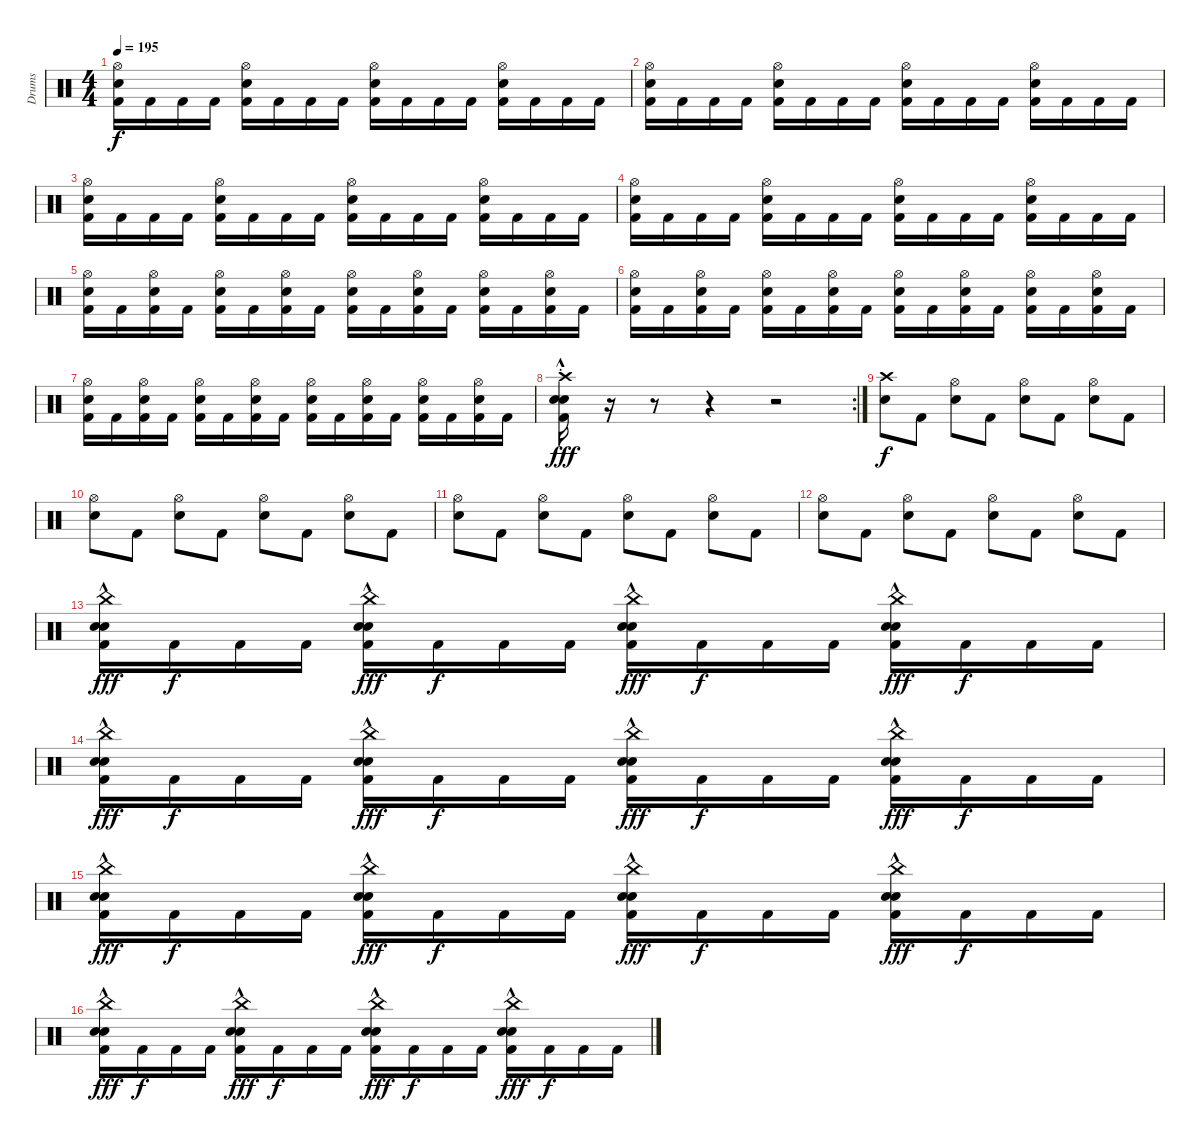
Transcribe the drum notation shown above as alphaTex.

\track ("Drums" "Drums") {instrument percussion}
\staff {score}
\articulation defaults
\ts (4 4)
\tempo 195
\clef neutral
\ks c
("Hi-Hat (open)" "Electric Snare (hit)" "Kick (hit) 2").16{dy f} "Kick (hit) 2".16 "Kick (hit) 2".16 "Kick (hit) 2".16 ("Hi-Hat (open)" "Electric Snare (hit)" "Kick (hit) 2").16 "Kick (hit) 2".16 "Kick (hit) 2".16 "Kick (hit) 2".16 ("Hi-Hat (open)" "Electric Snare (hit)" "Kick (hit) 2").16 "Kick (hit) 2".16 "Kick (hit) 2".16 "Kick (hit) 2".16 ("Hi-Hat (open)" "Electric Snare (hit)" "Kick (hit) 2").16 "Kick (hit) 2".16 "Kick (hit) 2".16 "Kick (hit) 2".16 |
("Hi-Hat (open)" "Electric Snare (hit)" "Kick (hit) 2").16 "Kick (hit) 2".16 "Kick (hit) 2".16 "Kick (hit) 2".16 ("Hi-Hat (open)" "Electric Snare (hit)" "Kick (hit) 2").16 "Kick (hit) 2".16 "Kick (hit) 2".16 "Kick (hit) 2".16 ("Hi-Hat (open)" "Electric Snare (hit)" "Kick (hit) 2").16 "Kick (hit) 2".16 "Kick (hit) 2".16 "Kick (hit) 2".16 ("Hi-Hat (open)" "Electric Snare (hit)" "Kick (hit) 2").16 "Kick (hit) 2".16 "Kick (hit) 2".16 "Kick (hit) 2".16 |
("Hi-Hat (open)" "Electric Snare (hit)" "Kick (hit) 2").16 "Kick (hit) 2".16 "Kick (hit) 2".16 "Kick (hit) 2".16 ("Hi-Hat (open)" "Electric Snare (hit)" "Kick (hit) 2").16 "Kick (hit) 2".16 "Kick (hit) 2".16 "Kick (hit) 2".16 ("Hi-Hat (open)" "Electric Snare (hit)" "Kick (hit) 2").16 "Kick (hit) 2".16 "Kick (hit) 2".16 "Kick (hit) 2".16 ("Hi-Hat (open)" "Electric Snare (hit)" "Kick (hit) 2").16 "Kick (hit) 2".16 "Kick (hit) 2".16 "Kick (hit) 2".16 |
("Hi-Hat (open)" "Electric Snare (hit)" "Kick (hit) 2").16 "Kick (hit) 2".16 "Kick (hit) 2".16 "Kick (hit) 2".16 ("Hi-Hat (open)" "Electric Snare (hit)" "Kick (hit) 2").16 "Kick (hit) 2".16 "Kick (hit) 2".16 "Kick (hit) 2".16 ("Hi-Hat (open)" "Electric Snare (hit)" "Kick (hit) 2").16 "Kick (hit) 2".16 "Kick (hit) 2".16 "Kick (hit) 2".16 ("Hi-Hat (open)" "Electric Snare (hit)" "Kick (hit) 2").16 "Kick (hit) 2".16 "Kick (hit) 2".16 "Kick (hit) 2".16 |
("Hi-Hat (open)" "Electric Snare (hit)" "Kick (hit) 2").16 "Kick (hit) 2".16 ("Hi-Hat (open)" "Electric Snare (hit)" "Kick (hit) 2").16 "Kick (hit) 2".16 ("Hi-Hat (open)" "Electric Snare (hit)" "Kick (hit) 2").16 "Kick (hit) 2".16 ("Hi-Hat (open)" "Electric Snare (hit)" "Kick (hit) 2").16 "Kick (hit) 2".16 ("Hi-Hat (open)" "Electric Snare (hit)" "Kick (hit) 2").16 "Kick (hit) 2".16 ("Hi-Hat (open)" "Electric Snare (hit)" "Kick (hit) 2").16 "Kick (hit) 2".16 ("Hi-Hat (open)" "Electric Snare (hit)" "Kick (hit) 2").16 "Kick (hit) 2".16 ("Hi-Hat (open)" "Electric Snare (hit)" "Kick (hit) 2").16 "Kick (hit) 2".16 |
("Hi-Hat (open)" "Electric Snare (hit)" "Kick (hit) 2").16 "Kick (hit) 2".16 ("Hi-Hat (open)" "Electric Snare (hit)" "Kick (hit) 2").16 "Kick (hit) 2".16 ("Hi-Hat (open)" "Electric Snare (hit)" "Kick (hit) 2").16 "Kick (hit) 2".16 ("Hi-Hat (open)" "Electric Snare (hit)" "Kick (hit) 2").16 "Kick (hit) 2".16 ("Hi-Hat (open)" "Electric Snare (hit)" "Kick (hit) 2").16 "Kick (hit) 2".16 ("Hi-Hat (open)" "Electric Snare (hit)" "Kick (hit) 2").16 "Kick (hit) 2".16 ("Hi-Hat (open)" "Electric Snare (hit)" "Kick (hit) 2").16 "Kick (hit) 2".16 ("Hi-Hat (open)" "Electric Snare (hit)" "Kick (hit) 2").16 "Kick (hit) 2".16 |
("Hi-Hat (open)" "Electric Snare (hit)" "Kick (hit) 2").16 "Kick (hit) 2".16 ("Hi-Hat (open)" "Electric Snare (hit)" "Kick (hit) 2").16 "Kick (hit) 2".16 ("Hi-Hat (open)" "Electric Snare (hit)" "Kick (hit) 2").16 "Kick (hit) 2".16 ("Hi-Hat (open)" "Electric Snare (hit)" "Kick (hit) 2").16 "Kick (hit) 2".16 ("Hi-Hat (open)" "Electric Snare (hit)" "Kick (hit) 2").16 "Kick (hit) 2".16 ("Hi-Hat (open)" "Electric Snare (hit)" "Kick (hit) 2").16 "Kick (hit) 2".16 ("Hi-Hat (open)" "Electric Snare (hit)" "Kick (hit) 2").16 "Kick (hit) 2".16 ("Hi-Hat (open)" "Electric Snare (hit)" "Kick (hit) 2").16 "Kick (hit) 2".16 |
\rc 2
("Crash high (hit)"{st} "Electric Snare (hit)"{hac} "Electric Snare (hit)"{hac} "Kick (hit) 2").16{dy fff} r.16 r.8 r.4 r.2 |
("Crash high (hit)" "Electric Snare (hit)").8{dy f} "Kick (hit) 2".8 ("Hi-Hat (open)" "Electric Snare (hit)").8 "Kick (hit) 2".8 ("Hi-Hat (open)" "Electric Snare (hit)").8 "Kick (hit) 2".8 ("Hi-Hat (open)" "Electric Snare (hit)").8 "Kick (hit) 2".8 |
("Hi-Hat (open)" "Electric Snare (hit)").8 "Kick (hit) 2".8 ("Hi-Hat (open)" "Electric Snare (hit)").8 "Kick (hit) 2".8 ("Hi-Hat (open)" "Electric Snare (hit)").8 "Kick (hit) 2".8 ("Hi-Hat (open)" "Electric Snare (hit)").8 "Kick (hit) 2".8 |
("Hi-Hat (open)" "Electric Snare (hit)").8 "Kick (hit) 2".8 ("Hi-Hat (open)" "Electric Snare (hit)").8 "Kick (hit) 2".8 ("Hi-Hat (open)" "Electric Snare (hit)").8 "Kick (hit) 2".8 ("Hi-Hat (open)" "Electric Snare (hit)").8 "Kick (hit) 2".8 |
("Hi-Hat (open)" "Electric Snare (hit)").8 "Kick (hit) 2".8 ("Hi-Hat (open)" "Electric Snare (hit)").8 "Kick (hit) 2".8 ("Hi-Hat (open)" "Electric Snare (hit)").8 "Kick (hit) 2".8 ("Hi-Hat (open)" "Electric Snare (hit)").8 "Kick (hit) 2".8 |
("Electric Snare (hit)"{hac} "Kick (hit) 2" "Electric Snare (hit)"{hac} "China (hit)").16{dy fff} "Kick (hit) 2".16{dy f} "Kick (hit) 2".16 "Kick (hit) 2".16 ("Electric Snare (hit)"{hac} "Kick (hit) 2" "Electric Snare (hit)"{hac} "China (hit)").16{dy fff} "Kick (hit) 2".16{dy f} "Kick (hit) 2".16 "Kick (hit) 2".16 ("Electric Snare (hit)"{hac} "Kick (hit) 2" "Electric Snare (hit)"{hac} "China (hit)").16{dy fff} "Kick (hit) 2".16{dy f} "Kick (hit) 2".16 "Kick (hit) 2".16 ("Electric Snare (hit)"{hac} "Kick (hit) 2" "Electric Snare (hit)"{hac} "China (hit)").16{dy fff} "Kick (hit) 2".16{dy f} "Kick (hit) 2".16 "Kick (hit) 2".16 |
("Electric Snare (hit)"{hac} "Kick (hit) 2" "Electric Snare (hit)"{hac} "China (hit)").16{dy fff} "Kick (hit) 2".16{dy f} "Kick (hit) 2".16 "Kick (hit) 2".16 ("Electric Snare (hit)"{hac} "Kick (hit) 2" "Electric Snare (hit)"{hac} "China (hit)").16{dy fff} "Kick (hit) 2".16{dy f} "Kick (hit) 2".16 "Kick (hit) 2".16 ("Electric Snare (hit)"{hac} "Kick (hit) 2" "Electric Snare (hit)"{hac} "China (hit)").16{dy fff} "Kick (hit) 2".16{dy f} "Kick (hit) 2".16 "Kick (hit) 2".16 ("Electric Snare (hit)"{hac} "Kick (hit) 2" "Electric Snare (hit)"{hac} "China (hit)").16{dy fff} "Kick (hit) 2".16{dy f} "Kick (hit) 2".16 "Kick (hit) 2".16 |
("Electric Snare (hit)"{hac} "Kick (hit) 2" "Electric Snare (hit)"{hac} "China (hit)").16{dy fff} "Kick (hit) 2".16{dy f} "Kick (hit) 2".16 "Kick (hit) 2".16 ("Electric Snare (hit)"{hac} "Kick (hit) 2" "Electric Snare (hit)"{hac} "China (hit)").16{dy fff} "Kick (hit) 2".16{dy f} "Kick (hit) 2".16 "Kick (hit) 2".16 ("Electric Snare (hit)"{hac} "Kick (hit) 2" "Electric Snare (hit)"{hac} "China (hit)").16{dy fff} "Kick (hit) 2".16{dy f} "Kick (hit) 2".16 "Kick (hit) 2".16 ("Electric Snare (hit)"{hac} "Kick (hit) 2" "Electric Snare (hit)"{hac} "China (hit)").16{dy fff} "Kick (hit) 2".16{dy f} "Kick (hit) 2".16 "Kick (hit) 2".16 |
("Electric Snare (hit)"{hac} "Kick (hit) 2" "Electric Snare (hit)"{hac} "China (hit)").16{dy fff} "Kick (hit) 2".16{dy f} "Kick (hit) 2".16 "Kick (hit) 2".16 ("Electric Snare (hit)"{hac} "Kick (hit) 2" "Electric Snare (hit)"{hac} "China (hit)").16{dy fff} "Kick (hit) 2".16{dy f} "Kick (hit) 2".16 "Kick (hit) 2".16 ("Electric Snare (hit)"{hac} "Kick (hit) 2" "Electric Snare (hit)"{hac} "China (hit)").16{dy fff} "Kick (hit) 2".16{dy f} "Kick (hit) 2".16 "Kick (hit) 2".16 ("Electric Snare (hit)"{hac} "Kick (hit) 2" "Electric Snare (hit)"{hac} "China (hit)").16{dy fff} "Kick (hit) 2".16{dy f} "Kick (hit) 2".16 "Kick (hit) 2".16
